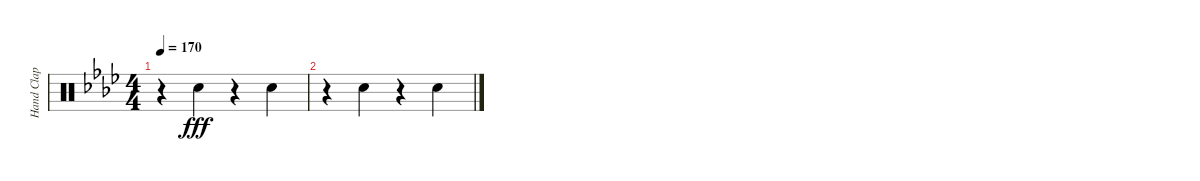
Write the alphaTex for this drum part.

\track ("Hand Clap" "Hand Clap") {instrument percussion}
\staff {score}
\articulation defaults
\ts (4 4)
\tempo 170
\clef neutral
\ks ab
r.4{dy fff} "Hand Clap (hit)".4 r.4 "Hand Clap (hit)".4 |
r.4 "Hand Clap (hit)".4 r.4 "Hand Clap (hit)".4
